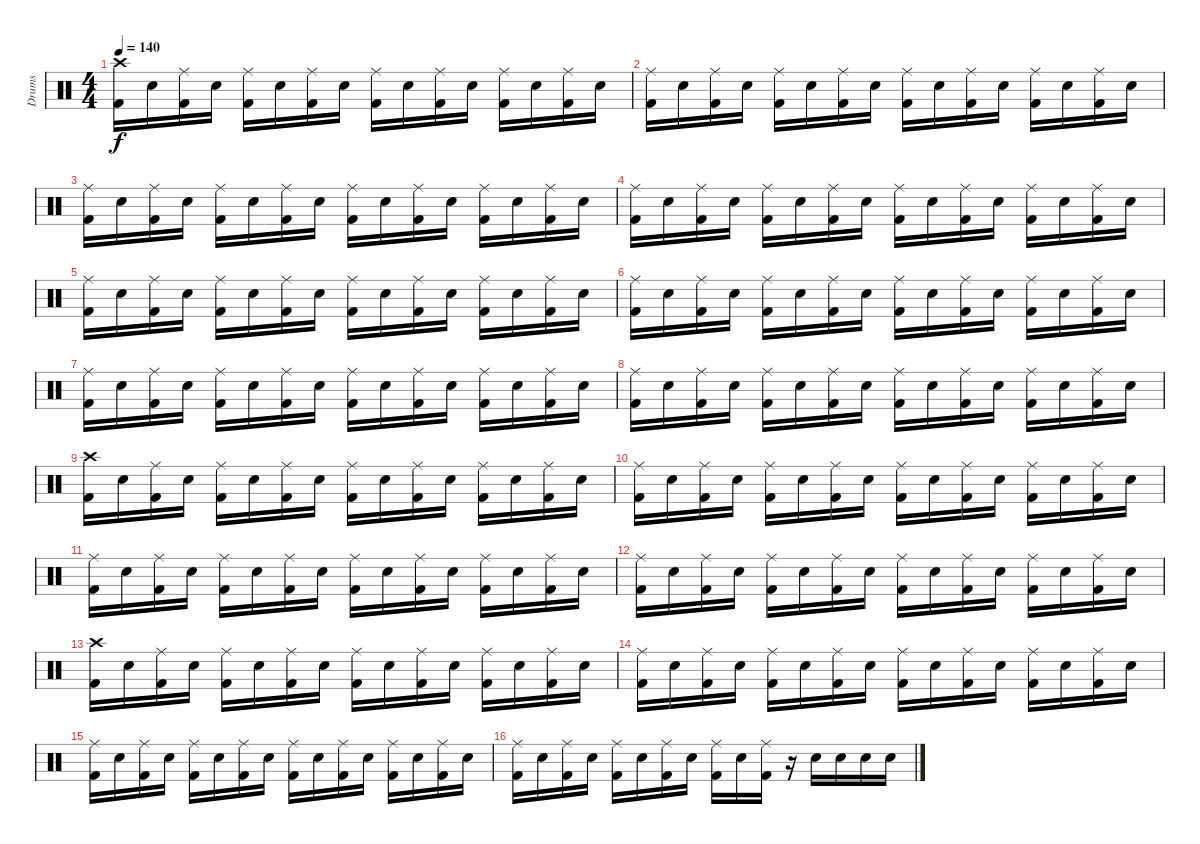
\track ("Drums" "Drums") {instrument percussion}
\staff {score}
\articulation defaults
\ts (4 4)
\tempo 140
\clef neutral
\ks c
("Kick (hit) 2" "Crash high (hit)").16{dy f} "Electric Snare (hit)".16 ("Kick (hit) 2" "Ride (middle)").16 "Electric Snare (hit)".16 ("Kick (hit) 2" "Ride (middle)").16 "Electric Snare (hit)".16 ("Kick (hit) 2" "Ride (middle)").16 "Electric Snare (hit)".16 ("Kick (hit) 2" "Ride (middle)").16 "Electric Snare (hit)".16 ("Kick (hit) 2" "Ride (middle)").16 "Electric Snare (hit)".16 ("Kick (hit) 2" "Ride (middle)").16 "Electric Snare (hit)".16 ("Kick (hit) 2" "Ride (middle)").16 "Electric Snare (hit)".16 |
("Kick (hit) 2" "Ride (middle)").16 "Electric Snare (hit)".16 ("Kick (hit) 2" "Ride (middle)").16 "Electric Snare (hit)".16 ("Kick (hit) 2" "Ride (middle)").16 "Electric Snare (hit)".16 ("Kick (hit) 2" "Ride (middle)").16 "Electric Snare (hit)".16 ("Kick (hit) 2" "Ride (middle)").16 "Electric Snare (hit)".16 ("Kick (hit) 2" "Ride (middle)").16 "Electric Snare (hit)".16 ("Kick (hit) 2" "Ride (middle)").16 "Electric Snare (hit)".16 ("Kick (hit) 2" "Ride (middle)").16 "Electric Snare (hit)".16 |
("Kick (hit) 2" "Ride (middle)").16 "Electric Snare (hit)".16 ("Kick (hit) 2" "Ride (middle)").16 "Electric Snare (hit)".16 ("Kick (hit) 2" "Ride (middle)").16 "Electric Snare (hit)".16 ("Kick (hit) 2" "Ride (middle)").16 "Electric Snare (hit)".16 ("Kick (hit) 2" "Ride (middle)").16 "Electric Snare (hit)".16 ("Kick (hit) 2" "Ride (middle)").16 "Electric Snare (hit)".16 ("Kick (hit) 2" "Ride (middle)").16 "Electric Snare (hit)".16 ("Kick (hit) 2" "Ride (middle)").16 "Electric Snare (hit)".16 |
("Kick (hit) 2" "Ride (middle)").16 "Electric Snare (hit)".16 ("Kick (hit) 2" "Ride (middle)").16 "Electric Snare (hit)".16 ("Kick (hit) 2" "Ride (middle)").16 "Electric Snare (hit)".16 ("Kick (hit) 2" "Ride (middle)").16 "Electric Snare (hit)".16 ("Kick (hit) 2" "Ride (middle)").16 "Electric Snare (hit)".16 ("Kick (hit) 2" "Ride (middle)").16 "Electric Snare (hit)".16 ("Kick (hit) 2" "Ride (middle)").16 "Electric Snare (hit)".16 ("Kick (hit) 2" "Ride (middle)").16 "Electric Snare (hit)".16 |
("Kick (hit) 2" "Ride (middle)").16 "Electric Snare (hit)".16 ("Kick (hit) 2" "Ride (middle)").16 "Electric Snare (hit)".16 ("Kick (hit) 2" "Ride (middle)").16 "Electric Snare (hit)".16 ("Kick (hit) 2" "Ride (middle)").16 "Electric Snare (hit)".16 ("Kick (hit) 2" "Ride (middle)").16 "Electric Snare (hit)".16 ("Kick (hit) 2" "Ride (middle)").16 "Electric Snare (hit)".16 ("Kick (hit) 2" "Ride (middle)").16 "Electric Snare (hit)".16 ("Kick (hit) 2" "Ride (middle)").16 "Electric Snare (hit)".16 |
("Kick (hit) 2" "Ride (middle)").16 "Electric Snare (hit)".16 ("Kick (hit) 2" "Ride (middle)").16 "Electric Snare (hit)".16 ("Kick (hit) 2" "Ride (middle)").16 "Electric Snare (hit)".16 ("Kick (hit) 2" "Ride (middle)").16 "Electric Snare (hit)".16 ("Kick (hit) 2" "Ride (middle)").16 "Electric Snare (hit)".16 ("Kick (hit) 2" "Ride (middle)").16 "Electric Snare (hit)".16 ("Kick (hit) 2" "Ride (middle)").16 "Electric Snare (hit)".16 ("Kick (hit) 2" "Ride (middle)").16 "Electric Snare (hit)".16 |
("Kick (hit) 2" "Ride (middle)").16 "Electric Snare (hit)".16 ("Kick (hit) 2" "Ride (middle)").16 "Electric Snare (hit)".16 ("Kick (hit) 2" "Ride (middle)").16 "Electric Snare (hit)".16 ("Kick (hit) 2" "Ride (middle)").16 "Electric Snare (hit)".16 ("Kick (hit) 2" "Ride (middle)").16 "Electric Snare (hit)".16 ("Kick (hit) 2" "Ride (middle)").16 "Electric Snare (hit)".16 ("Kick (hit) 2" "Ride (middle)").16 "Electric Snare (hit)".16 ("Kick (hit) 2" "Ride (middle)").16 "Electric Snare (hit)".16 |
("Kick (hit) 2" "Ride (middle)").16 "Electric Snare (hit)".16 ("Kick (hit) 2" "Ride (middle)").16 "Electric Snare (hit)".16 ("Kick (hit) 2" "Ride (middle)").16 "Electric Snare (hit)".16 ("Kick (hit) 2" "Ride (middle)").16 "Electric Snare (hit)".16 ("Kick (hit) 2" "Ride (middle)").16 "Electric Snare (hit)".16 ("Kick (hit) 2" "Ride (middle)").16 "Electric Snare (hit)".16 ("Kick (hit) 2" "Ride (middle)").16 "Electric Snare (hit)".16 ("Kick (hit) 2" "Ride (middle)").16 "Electric Snare (hit)".16 |
("Kick (hit) 2" "Crash high (hit)").16 "Electric Snare (hit)".16 ("Kick (hit) 2" "Ride (middle)").16 "Electric Snare (hit)".16 ("Kick (hit) 2" "Ride (middle)").16 "Electric Snare (hit)".16 ("Kick (hit) 2" "Ride (middle)").16 "Electric Snare (hit)".16 ("Kick (hit) 2" "Ride (middle)").16 "Electric Snare (hit)".16 ("Kick (hit) 2" "Ride (middle)").16 "Electric Snare (hit)".16 ("Kick (hit) 2" "Ride (middle)").16 "Electric Snare (hit)".16 ("Kick (hit) 2" "Ride (middle)").16 "Electric Snare (hit)".16 |
("Kick (hit) 2" "Ride (middle)").16 "Electric Snare (hit)".16 ("Kick (hit) 2" "Ride (middle)").16 "Electric Snare (hit)".16 ("Kick (hit) 2" "Ride (middle)").16 "Electric Snare (hit)".16 ("Kick (hit) 2" "Ride (middle)").16 "Electric Snare (hit)".16 ("Kick (hit) 2" "Ride (middle)").16 "Electric Snare (hit)".16 ("Kick (hit) 2" "Ride (middle)").16 "Electric Snare (hit)".16 ("Kick (hit) 2" "Ride (middle)").16 "Electric Snare (hit)".16 ("Kick (hit) 2" "Ride (middle)").16 "Electric Snare (hit)".16 |
("Kick (hit) 2" "Ride (middle)").16 "Electric Snare (hit)".16 ("Kick (hit) 2" "Ride (middle)").16 "Electric Snare (hit)".16 ("Kick (hit) 2" "Ride (middle)").16 "Electric Snare (hit)".16 ("Kick (hit) 2" "Ride (middle)").16 "Electric Snare (hit)".16 ("Kick (hit) 2" "Ride (middle)").16 "Electric Snare (hit)".16 ("Kick (hit) 2" "Ride (middle)").16 "Electric Snare (hit)".16 ("Kick (hit) 2" "Ride (middle)").16 "Electric Snare (hit)".16 ("Kick (hit) 2" "Ride (middle)").16 "Electric Snare (hit)".16 |
("Kick (hit) 2" "Ride (middle)").16 "Electric Snare (hit)".16 ("Kick (hit) 2" "Ride (middle)").16 "Electric Snare (hit)".16 ("Kick (hit) 2" "Ride (middle)").16 "Electric Snare (hit)".16 ("Kick (hit) 2" "Ride (middle)").16 "Electric Snare (hit)".16 ("Kick (hit) 2" "Ride (middle)").16 "Electric Snare (hit)".16 ("Kick (hit) 2" "Ride (middle)").16 "Electric Snare (hit)".16 ("Kick (hit) 2" "Ride (middle)").16 "Electric Snare (hit)".16 ("Kick (hit) 2" "Ride (middle)").16 "Electric Snare (hit)".16 |
("Kick (hit) 2" "Crash high (hit)").16 "Electric Snare (hit)".16 ("Kick (hit) 2" "Ride (middle)").16 "Electric Snare (hit)".16 ("Kick (hit) 2" "Ride (middle)").16 "Electric Snare (hit)".16 ("Kick (hit) 2" "Ride (middle)").16 "Electric Snare (hit)".16 ("Kick (hit) 2" "Ride (middle)").16 "Electric Snare (hit)".16 ("Kick (hit) 2" "Ride (middle)").16 "Electric Snare (hit)".16 ("Kick (hit) 2" "Ride (middle)").16 "Electric Snare (hit)".16 ("Kick (hit) 2" "Ride (middle)").16 "Electric Snare (hit)".16 |
("Kick (hit) 2" "Ride (middle)").16 "Electric Snare (hit)".16 ("Kick (hit) 2" "Ride (middle)").16 "Electric Snare (hit)".16 ("Kick (hit) 2" "Ride (middle)").16 "Electric Snare (hit)".16 ("Kick (hit) 2" "Ride (middle)").16 "Electric Snare (hit)".16 ("Kick (hit) 2" "Ride (middle)").16 "Electric Snare (hit)".16 ("Kick (hit) 2" "Ride (middle)").16 "Electric Snare (hit)".16 ("Kick (hit) 2" "Ride (middle)").16 "Electric Snare (hit)".16 ("Kick (hit) 2" "Ride (middle)").16 "Electric Snare (hit)".16 |
("Kick (hit) 2" "Ride (middle)").16 "Electric Snare (hit)".16 ("Kick (hit) 2" "Ride (middle)").16 "Electric Snare (hit)".16 ("Kick (hit) 2" "Ride (middle)").16 "Electric Snare (hit)".16 ("Kick (hit) 2" "Ride (middle)").16 "Electric Snare (hit)".16 ("Kick (hit) 2" "Ride (middle)").16 "Electric Snare (hit)".16 ("Kick (hit) 2" "Ride (middle)").16 "Electric Snare (hit)".16 ("Kick (hit) 2" "Ride (middle)").16 "Electric Snare (hit)".16 ("Kick (hit) 2" "Ride (middle)").16 "Electric Snare (hit)".16 |
("Kick (hit) 2" "Ride (middle)").16 "Electric Snare (hit)".16 ("Kick (hit) 2" "Ride (middle)").16 "Electric Snare (hit)".16 ("Kick (hit) 2" "Ride (middle)").16 "Electric Snare (hit)".16 ("Kick (hit) 2" "Ride (middle)").16 "Electric Snare (hit)".16 ("Kick (hit) 2" "Ride (middle)").16 "Electric Snare (hit)".16 ("Kick (hit) 2" "Ride (middle)").16 r.16 "Electric Snare (hit)".16 "Electric Snare (hit)".16 "Electric Snare (hit)".16 "Electric Snare (hit)".16
